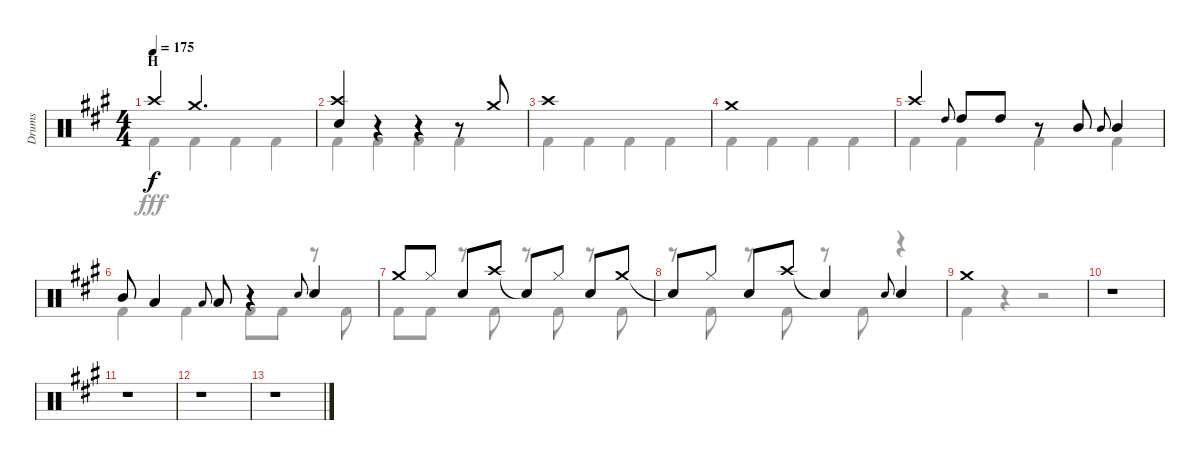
\track ("Drums" "Drums") {instrument percussion}
\staff {score}
\articulation defaults
\voice
\ts (4 4)
\section ("" "H")
\tempo 175
\clef neutral
\ks a "Crash high (hit)".4{dy f} "Crash medium (hit)".2{d}
|
("Crash high (hit)" "Snare (hit) 2").4 r.4 r.4 r.8 "Crash medium (hit)".8 |
"Crash high (hit)".1 |
"Crash medium (hit)".1 |
"Crash high (hit)".4 "High Tom (hit)".8{gr onbeat} "High Tom (hit)".8 "High Tom (hit)".8 r.8 "Mid Tom (hit)".8 "Mid Tom (hit)".8{gr onbeat} "Mid Tom (hit)".4 |
"Mid Tom (hit)".8 "Low Tom (hit)".4 "Low Tom (hit)".8{gr onbeat} "Low Tom (hit)".8 r.4 "Snare (hit) 2".8{gr onbeat} "Snare (hit) 2".4 |
"Crash medium (hit)".8 "Hi-Hat (closed)".8 "Snare (hit) 2".8 "Crash high (hit)".8 "Snare (hit)"{t}.8 "Hi-Hat (closed)".8 "Snare (hit) 2".8 "Crash medium (hit)".8 |
"Snare (hit)"{t}.8 "Hi-Hat (closed)".8 "Snare (hit) 2".8 "Crash high (hit)".8 "Snare (hit)"{t}.4 "Snare (hit) 2".8{gr onbeat} "Snare (hit) 2".4 |
"Crash medium (hit)".1 |
r.1 |
r.1 |
r.1 |
r.1
\voice
\clef neutral
\ottava regular
\simile none
\ks a "Kick (hit) 2".4{dy fff} "Kick (hit) 2".4 "Kick (hit) 2".4 "Kick (hit) 2".4
|
"Kick (hit) 2".4 "Kick (hit) 2".4 "Kick (hit) 2".4 "Kick (hit) 2".4 |
"Kick (hit) 2".4 "Kick (hit) 2".4 "Kick (hit) 2".4 "Kick (hit) 2".4 |
"Kick (hit) 2".4 "Kick (hit) 2".4 "Kick (hit) 2".4 "Kick (hit) 2".4 |
"Kick (hit) 2".4 "Kick (hit) 2".4 "Kick (hit) 2".4 "Kick (hit) 2".4 |
"Kick (hit) 2".4 "Kick (hit) 2".4 "Kick (hit) 2".8 "Kick (hit) 2".8 r.8 "Kick (hit) 2".8 |
"Kick (hit) 2".8 "Kick (hit) 2".8 r.8 "Kick (hit) 2".8 r.8 "Kick (hit) 2".8 r.8 "Kick (hit) 2".8 |
r.8 "Kick (hit) 2".8 r.8 "Kick (hit) 2".8 r.8 "Kick (hit) 2".8 r.4 |
"Kick (hit) 2".4 r.4 r.2 |
r.1 |
r.1 |
r.1 |
r.1
